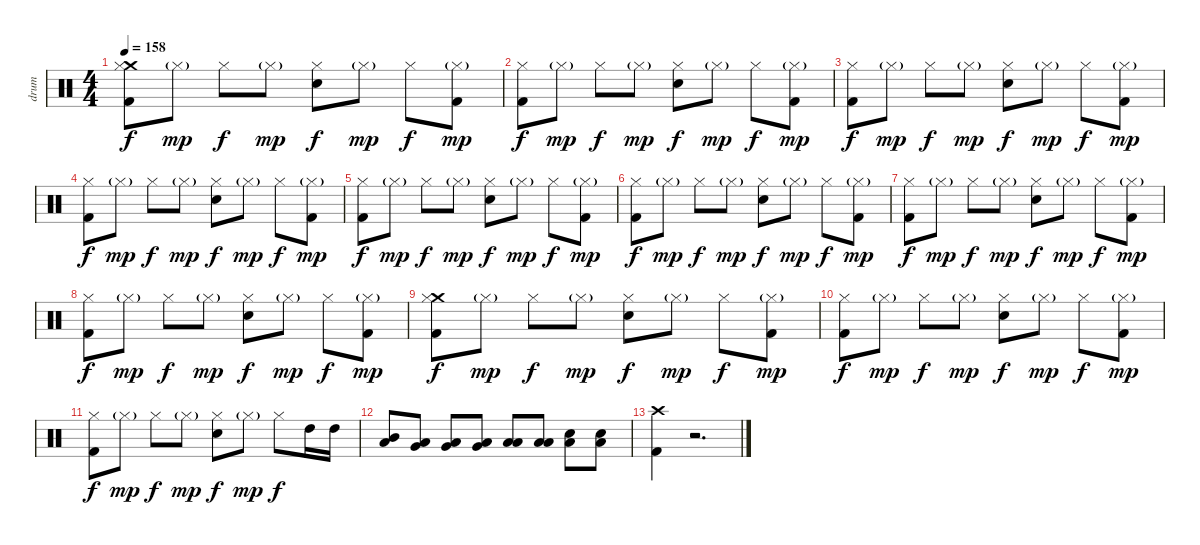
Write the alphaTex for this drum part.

\track ("drum" "drum") {instrument percussion}
\staff {score}
\articulation defaults
\ts (4 4)
\tempo 158
\clef neutral
\ks c
("Crash medium (hit)" "Hi-Hat (closed)" "Kick (hit) 2").8{dy f} "Hi-Hat (closed)"{g}.8{dy mp} "Hi-Hat (closed)".8{dy f} "Hi-Hat (closed)"{g}.8{dy mp} ("Hi-Hat (closed)" "Electric Snare (hit)").8{dy f} "Hi-Hat (closed)"{g}.8{dy mp} "Hi-Hat (closed)".8{dy f} ("Hi-Hat (closed)"{g} "Kick (hit) 2").8{dy mp} |
("Hi-Hat (closed)" "Kick (hit) 2").8{dy f} "Hi-Hat (closed)"{g}.8{dy mp} "Hi-Hat (closed)".8{dy f} "Hi-Hat (closed)"{g}.8{dy mp} ("Hi-Hat (closed)" "Electric Snare (hit)").8{dy f} "Hi-Hat (closed)"{g}.8{dy mp} "Hi-Hat (closed)".8{dy f} ("Hi-Hat (closed)"{g} "Kick (hit) 2").8{dy mp} |
("Hi-Hat (closed)" "Kick (hit) 2").8{dy f} "Hi-Hat (closed)"{g}.8{dy mp} "Hi-Hat (closed)".8{dy f} "Hi-Hat (closed)"{g}.8{dy mp} ("Hi-Hat (closed)" "Electric Snare (hit)").8{dy f} "Hi-Hat (closed)"{g}.8{dy mp} "Hi-Hat (closed)".8{dy f} ("Hi-Hat (closed)"{g} "Kick (hit) 2").8{dy mp} |
("Hi-Hat (closed)" "Kick (hit) 2").8{dy f} "Hi-Hat (closed)"{g}.8{dy mp} "Hi-Hat (closed)".8{dy f} "Hi-Hat (closed)"{g}.8{dy mp} ("Hi-Hat (closed)" "Electric Snare (hit)").8{dy f} "Hi-Hat (closed)"{g}.8{dy mp} "Hi-Hat (closed)".8{dy f} ("Hi-Hat (closed)"{g} "Kick (hit) 2").8{dy mp} |
("Hi-Hat (closed)" "Kick (hit) 2").8{dy f} "Hi-Hat (closed)"{g}.8{dy mp} "Hi-Hat (closed)".8{dy f} "Hi-Hat (closed)"{g}.8{dy mp} ("Hi-Hat (closed)" "Electric Snare (hit)").8{dy f} "Hi-Hat (closed)"{g}.8{dy mp} "Hi-Hat (closed)".8{dy f} ("Hi-Hat (closed)"{g} "Kick (hit) 2").8{dy mp} |
("Hi-Hat (closed)" "Kick (hit) 2").8{dy f} "Hi-Hat (closed)"{g}.8{dy mp} "Hi-Hat (closed)".8{dy f} "Hi-Hat (closed)"{g}.8{dy mp} ("Hi-Hat (closed)" "Electric Snare (hit)").8{dy f} "Hi-Hat (closed)"{g}.8{dy mp} "Hi-Hat (closed)".8{dy f} ("Hi-Hat (closed)"{g} "Kick (hit) 2").8{dy mp} |
("Hi-Hat (closed)" "Kick (hit) 2").8{dy f} "Hi-Hat (closed)"{g}.8{dy mp} "Hi-Hat (closed)".8{dy f} "Hi-Hat (closed)"{g}.8{dy mp} ("Hi-Hat (closed)" "Electric Snare (hit)").8{dy f} "Hi-Hat (closed)"{g}.8{dy mp} "Hi-Hat (closed)".8{dy f} ("Hi-Hat (closed)"{g} "Kick (hit) 2").8{dy mp} |
("Hi-Hat (closed)" "Kick (hit) 2").8{dy f} "Hi-Hat (closed)"{g}.8{dy mp} "Hi-Hat (closed)".8{dy f} "Hi-Hat (closed)"{g}.8{dy mp} ("Hi-Hat (closed)" "Electric Snare (hit)").8{dy f} "Hi-Hat (closed)"{g}.8{dy mp} "Hi-Hat (closed)".8{dy f} ("Hi-Hat (closed)"{g} "Kick (hit) 2").8{dy mp} |
("Crash medium (hit)" "Hi-Hat (closed)" "Kick (hit) 2").8{dy f} "Hi-Hat (closed)"{g}.8{dy mp} "Hi-Hat (closed)".8{dy f} "Hi-Hat (closed)"{g}.8{dy mp} ("Hi-Hat (closed)" "Electric Snare (hit)").8{dy f} "Hi-Hat (closed)"{g}.8{dy mp} "Hi-Hat (closed)".8{dy f} ("Hi-Hat (closed)"{g} "Kick (hit) 2").8{dy mp} |
("Hi-Hat (closed)" "Kick (hit) 2").8{dy f} "Hi-Hat (closed)"{g}.8{dy mp} "Hi-Hat (closed)".8{dy f} "Hi-Hat (closed)"{g}.8{dy mp} ("Hi-Hat (closed)" "Electric Snare (hit)").8{dy f} "Hi-Hat (closed)"{g}.8{dy mp} "Hi-Hat (closed)".8{dy f} ("Hi-Hat (closed)"{g} "Kick (hit) 2").8{dy mp} |
("Hi-Hat (closed)" "Kick (hit) 2").8{dy f} "Hi-Hat (closed)"{g}.8{dy mp} "Hi-Hat (closed)".8{dy f} "Hi-Hat (closed)"{g}.8{dy mp} ("Hi-Hat (closed)" "Electric Snare (hit)").8{dy f} "Hi-Hat (closed)"{g}.8{dy mp} "Hi-Hat (closed)".8{dy f} "High Tom (hit)".16 "High Tom (hit)".16 |
("Mid Tom (hit)" "Low Tom (hit)").8 ("Low Tom (hit)" "Very Low Tom (hit)").8 ("Low Tom (hit)" "Very Low Tom (hit)").8 ("Low Tom (hit)" "Very Low Tom (hit)").8 ("Low Tom (hit)" "Low Floor Tom (hit)").8 ("Low Tom (hit)" "Low Floor Tom (hit)").8 ("Electric Snare (hit)" "Low Floor Tom (hit)").8 ("Electric Snare (hit)" "Low Floor Tom (hit)").8 |
("Crash high (hit)" "Kick (hit) 2").4 r.2{d}
